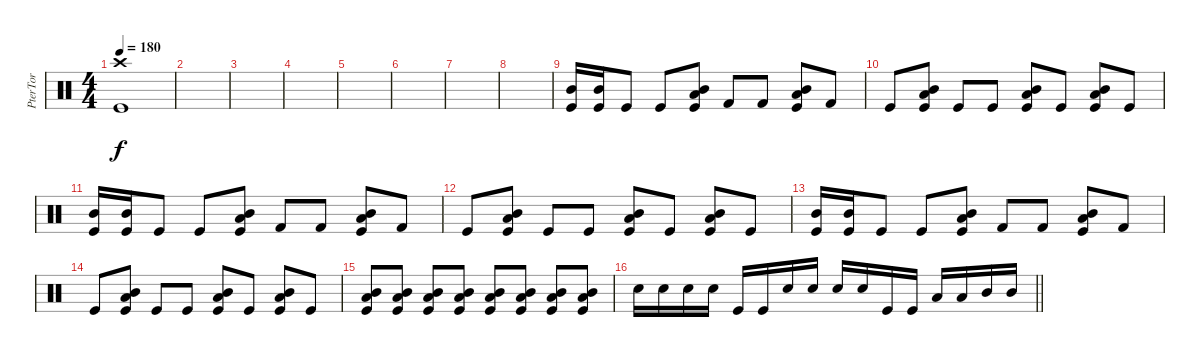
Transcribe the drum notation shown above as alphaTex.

\track ("PterTor" "PterTor") {instrument percussion}
\staff {score}
\articulation defaults
\ts (4 4)
\tempo 180
\clef neutral
\ks c
("Crash high (hit)" "Kick (hit)").1{dy f} |
|
|
|
|
|
|
|
("Mid Tom (hit)" "Kick (hit)").16 ("Mid Tom (hit)" "Kick (hit)").16 "Kick (hit)".8 "Kick (hit)".8 ("Low Tom (hit)" "Mid Tom (hit)" "Kick (hit)").8 "Kick (hit) 2".8 "Kick (hit) 2".8 ("Low Tom (hit)" "Mid Tom (hit)" "Kick (hit)").8 "Kick (hit) 2".8 |
"Kick (hit)".8 ("Low Tom (hit)" "Mid Tom (hit)" "Kick (hit)").8 "Kick (hit)".8 "Kick (hit)".8 ("Low Tom (hit)" "Mid Tom (hit)" "Kick (hit)").8 "Kick (hit)".8 ("Low Tom (hit)" "Mid Tom (hit)" "Kick (hit)").8 "Kick (hit)".8 |
("Mid Tom (hit)" "Kick (hit)").16 ("Mid Tom (hit)" "Kick (hit)").16 "Kick (hit)".8 "Kick (hit)".8 ("Low Tom (hit)" "Mid Tom (hit)" "Kick (hit)").8 "Kick (hit) 2".8 "Kick (hit) 2".8 ("Low Tom (hit)" "Mid Tom (hit)" "Kick (hit)").8 "Kick (hit) 2".8 |
"Kick (hit)".8 ("Low Tom (hit)" "Mid Tom (hit)" "Kick (hit)").8 "Kick (hit)".8 "Kick (hit)".8 ("Low Tom (hit)" "Mid Tom (hit)" "Kick (hit)").8 "Kick (hit)".8 ("Low Tom (hit)" "Mid Tom (hit)" "Kick (hit)").8 "Kick (hit)".8 |
("Mid Tom (hit)" "Kick (hit)").16 ("Mid Tom (hit)" "Kick (hit)").16 "Kick (hit)".8 "Kick (hit)".8 ("Low Tom (hit)" "Mid Tom (hit)" "Kick (hit)").8 "Kick (hit) 2".8 "Kick (hit) 2".8 ("Low Tom (hit)" "Mid Tom (hit)" "Kick (hit)").8 "Kick (hit) 2".8 |
"Kick (hit)".8 ("Low Tom (hit)" "Mid Tom (hit)" "Kick (hit)").8 "Kick (hit)".8 "Kick (hit)".8 ("Low Tom (hit)" "Mid Tom (hit)" "Kick (hit)").8 "Kick (hit)".8 ("Low Tom (hit)" "Mid Tom (hit)" "Kick (hit)").8 "Kick (hit)".8 |
("Low Tom (hit)" "Mid Tom (hit)" "Kick (hit)").8 ("Low Tom (hit)" "Mid Tom (hit)" "Kick (hit)").8 ("Low Tom (hit)" "Mid Tom (hit)" "Kick (hit)").8 ("Low Tom (hit)" "Mid Tom (hit)" "Kick (hit)").8 ("Low Tom (hit)" "Mid Tom (hit)" "Kick (hit)").8 ("Low Tom (hit)" "Mid Tom (hit)" "Kick (hit)").8 ("Low Tom (hit)" "Mid Tom (hit)" "Kick (hit)").8 ("Low Tom (hit)" "Mid Tom (hit)" "Kick (hit)").8 |
\barLineRight lightlight "Electric Snare (hit)".16 "Electric Snare (hit)".16 "Electric Snare (hit)".16 "Electric Snare (hit)".16 "Kick (hit)".16 "Kick (hit)".16 "Electric Snare (hit)".16 "Electric Snare (hit)".16 "Electric Snare (hit)".16 "Electric Snare (hit)".16 "Kick (hit)".16 "Kick (hit)".16 "Low Tom (hit)".16 "Low Tom (hit)".16 "Mid Tom (hit)".16 "Mid Tom (hit)".16
